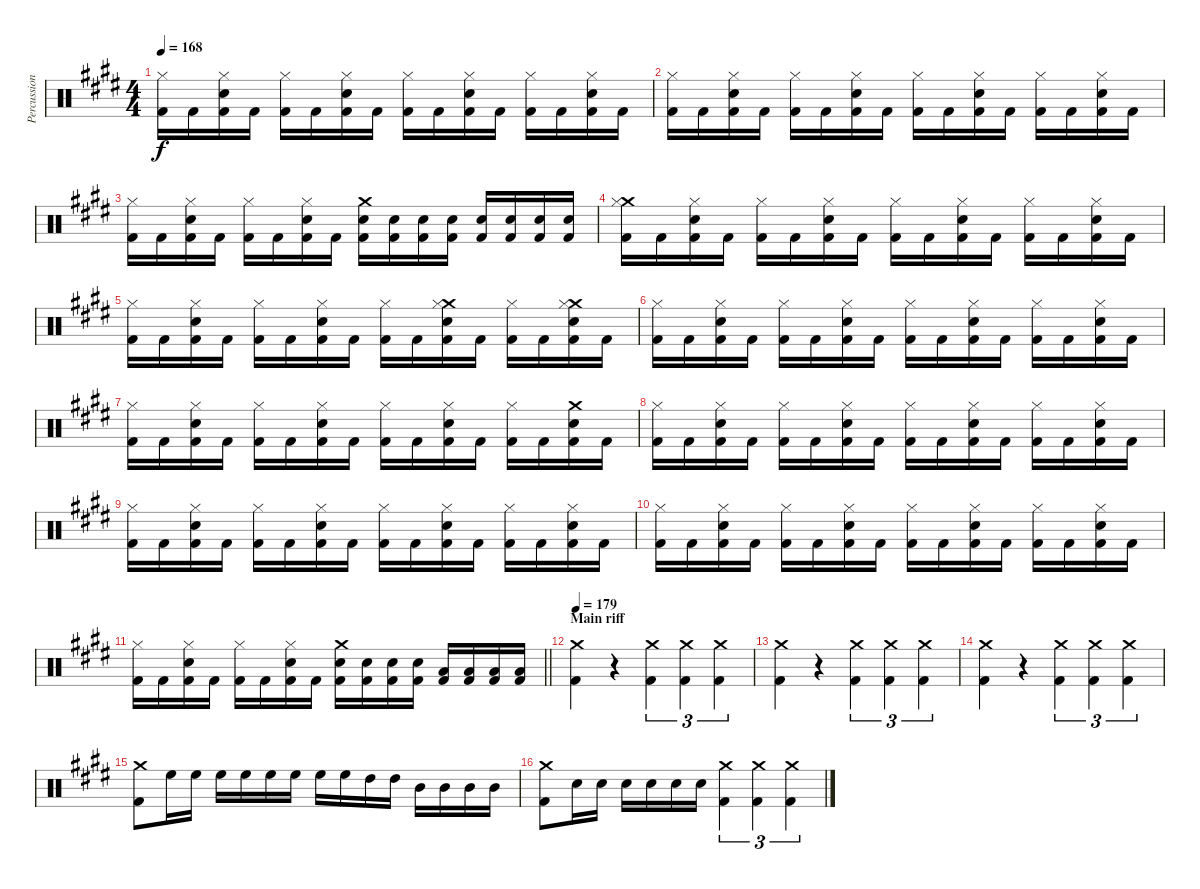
\track ("Percussion (Thomen Stauch)" "Percussion") {instrument percussion}
\staff {score}
\articulation defaults
\ts (4 4)
\tempo 168
\clef neutral
\ks c#minor
("Hi-Hat (closed)" "Kick (hit) 2").16{dy f} "Kick (hit) 2".16 ("Hi-Hat (closed)" "Snare (hit) 2" "Kick (hit) 2").16 "Kick (hit) 2".16 ("Hi-Hat (closed)" "Kick (hit) 2").16 "Kick (hit) 2".16 ("Hi-Hat (closed)" "Snare (hit) 2" "Kick (hit) 2").16 "Kick (hit) 2".16 ("Hi-Hat (closed)" "Kick (hit) 2").16 "Kick (hit) 2".16 ("Hi-Hat (closed)" "Snare (hit) 2" "Kick (hit) 2").16 "Kick (hit) 2".16 ("Hi-Hat (closed)" "Kick (hit) 2").16 "Kick (hit) 2".16 ("Hi-Hat (closed)" "Snare (hit) 2" "Kick (hit) 2").16 "Kick (hit) 2".16 |
("Hi-Hat (closed)" "Kick (hit) 2").16 "Kick (hit) 2".16 ("Hi-Hat (closed)" "Snare (hit) 2" "Kick (hit) 2").16 "Kick (hit) 2".16 ("Hi-Hat (closed)" "Kick (hit) 2").16 "Kick (hit) 2".16 ("Hi-Hat (closed)" "Snare (hit) 2" "Kick (hit) 2").16 "Kick (hit) 2".16 ("Hi-Hat (closed)" "Kick (hit) 2").16 "Kick (hit) 2".16 ("Hi-Hat (closed)" "Snare (hit) 2" "Kick (hit) 2").16 "Kick (hit) 2".16 ("Hi-Hat (closed)" "Kick (hit) 2").16 "Kick (hit) 2".16 ("Hi-Hat (closed)" "Snare (hit) 2" "Kick (hit) 2").16 "Kick (hit) 2".16 |
("Hi-Hat (closed)" "Kick (hit) 2").16 "Kick (hit) 2".16 ("Hi-Hat (closed)" "Snare (hit) 2" "Kick (hit) 2").16 "Kick (hit) 2".16 ("Hi-Hat (closed)" "Kick (hit) 2").16 "Kick (hit) 2".16 ("Hi-Hat (closed)" "Snare (hit) 2" "Kick (hit) 2").16 "Kick (hit) 2".16 ("Crash medium (hit)" "Snare (hit) 2" "Kick (hit) 2").16 ("Snare (hit) 2" "Kick (hit) 2").16 ("Snare (hit) 2" "Kick (hit) 2").16 ("Snare (hit) 2" "Kick (hit) 2").16 ("Snare (hit) 2" "Kick (hit) 2").16 ("Snare (hit) 2" "Kick (hit) 2").16 ("Snare (hit) 2" "Kick (hit) 2").16 ("Snare (hit) 2" "Kick (hit) 2").16 |
("Crash medium (hit)" "Hi-Hat (closed)" "Kick (hit) 2").16 "Kick (hit) 2".16 ("Hi-Hat (closed)" "Snare (hit) 2" "Kick (hit) 2").16 "Kick (hit) 2".16 ("Hi-Hat (closed)" "Kick (hit) 2").16 "Kick (hit) 2".16 ("Hi-Hat (closed)" "Snare (hit) 2" "Kick (hit) 2").16 "Kick (hit) 2".16 ("Hi-Hat (closed)" "Kick (hit) 2").16 "Kick (hit) 2".16 ("Hi-Hat (closed)" "Snare (hit) 2" "Kick (hit) 2").16 "Kick (hit) 2".16 ("Hi-Hat (closed)" "Kick (hit) 2").16 "Kick (hit) 2".16 ("Hi-Hat (closed)" "Snare (hit) 2" "Kick (hit) 2").16 "Kick (hit) 2".16 |
("Hi-Hat (closed)" "Kick (hit) 2").16 "Kick (hit) 2".16 ("Hi-Hat (closed)" "Snare (hit) 2" "Kick (hit) 2").16 "Kick (hit) 2".16 ("Hi-Hat (closed)" "Kick (hit) 2").16 "Kick (hit) 2".16 ("Hi-Hat (closed)" "Snare (hit) 2" "Kick (hit) 2").16 "Kick (hit) 2".16 ("Hi-Hat (closed)" "Kick (hit) 2").16 "Kick (hit) 2".16 ("Crash medium (hit)" "Hi-Hat (closed)" "Snare (hit) 2" "Kick (hit) 2").16 "Kick (hit) 2".16 ("Hi-Hat (closed)" "Kick (hit) 2").16 "Kick (hit) 2".16 ("Crash medium (hit)" "Hi-Hat (closed)" "Snare (hit) 2" "Kick (hit) 2").16 "Kick (hit) 2".16 |
("Hi-Hat (closed)" "Kick (hit) 2").16 "Kick (hit) 2".16 ("Hi-Hat (closed)" "Snare (hit) 2" "Kick (hit) 2").16 "Kick (hit) 2".16 ("Hi-Hat (closed)" "Kick (hit) 2").16 "Kick (hit) 2".16 ("Hi-Hat (closed)" "Snare (hit) 2" "Kick (hit) 2").16 "Kick (hit) 2".16 ("Hi-Hat (closed)" "Kick (hit) 2").16 "Kick (hit) 2".16 ("Hi-Hat (closed)" "Snare (hit) 2" "Kick (hit) 2").16 "Kick (hit) 2".16 ("Hi-Hat (closed)" "Kick (hit) 2").16 "Kick (hit) 2".16 ("Hi-Hat (closed)" "Snare (hit) 2" "Kick (hit) 2").16 "Kick (hit) 2".16 |
("Hi-Hat (closed)" "Kick (hit) 2").16 "Kick (hit) 2".16 ("Hi-Hat (closed)" "Snare (hit) 2" "Kick (hit) 2").16 "Kick (hit) 2".16 ("Hi-Hat (closed)" "Kick (hit) 2").16 "Kick (hit) 2".16 ("Hi-Hat (closed)" "Snare (hit) 2" "Kick (hit) 2").16 "Kick (hit) 2".16 ("Hi-Hat (closed)" "Kick (hit) 2").16 "Kick (hit) 2".16 ("Hi-Hat (closed)" "Snare (hit) 2" "Kick (hit) 2").16 "Kick (hit) 2".16 ("Hi-Hat (closed)" "Kick (hit) 2").16 "Kick (hit) 2".16 ("Crash medium (hit)" "Snare (hit) 2" "Kick (hit) 2").16 "Kick (hit) 2".16 |
("Hi-Hat (closed)" "Kick (hit) 2").16 "Kick (hit) 2".16 ("Hi-Hat (closed)" "Snare (hit) 2" "Kick (hit) 2").16 "Kick (hit) 2".16 ("Hi-Hat (closed)" "Kick (hit) 2").16 "Kick (hit) 2".16 ("Hi-Hat (closed)" "Snare (hit) 2" "Kick (hit) 2").16 "Kick (hit) 2".16 ("Hi-Hat (closed)" "Kick (hit) 2").16 "Kick (hit) 2".16 ("Hi-Hat (closed)" "Snare (hit) 2" "Kick (hit) 2").16 "Kick (hit) 2".16 ("Hi-Hat (closed)" "Kick (hit) 2").16 "Kick (hit) 2".16 ("Hi-Hat (closed)" "Snare (hit) 2" "Kick (hit) 2").16 "Kick (hit) 2".16 |
("Hi-Hat (closed)" "Kick (hit) 2").16 "Kick (hit) 2".16 ("Hi-Hat (closed)" "Snare (hit) 2" "Kick (hit) 2").16 "Kick (hit) 2".16 ("Hi-Hat (closed)" "Kick (hit) 2").16 "Kick (hit) 2".16 ("Hi-Hat (closed)" "Snare (hit) 2" "Kick (hit) 2").16 "Kick (hit) 2".16 ("Hi-Hat (closed)" "Kick (hit) 2").16 "Kick (hit) 2".16 ("Hi-Hat (closed)" "Snare (hit) 2" "Kick (hit) 2").16 "Kick (hit) 2".16 ("Hi-Hat (closed)" "Kick (hit) 2").16 "Kick (hit) 2".16 ("Hi-Hat (closed)" "Snare (hit) 2" "Kick (hit) 2").16 "Kick (hit) 2".16 |
("Hi-Hat (closed)" "Kick (hit) 2").16 "Kick (hit) 2".16 ("Hi-Hat (closed)" "Snare (hit) 2" "Kick (hit) 2").16 "Kick (hit) 2".16 ("Hi-Hat (closed)" "Kick (hit) 2").16 "Kick (hit) 2".16 ("Hi-Hat (closed)" "Snare (hit) 2" "Kick (hit) 2").16 "Kick (hit) 2".16 ("Hi-Hat (closed)" "Kick (hit) 2").16 "Kick (hit) 2".16 ("Hi-Hat (closed)" "Snare (hit) 2" "Kick (hit) 2").16 "Kick (hit) 2".16 ("Hi-Hat (closed)" "Kick (hit) 2").16 "Kick (hit) 2".16 ("Hi-Hat (closed)" "Snare (hit) 2" "Kick (hit) 2").16 "Kick (hit) 2".16 |
\barLineRight lightlight
("Hi-Hat (closed)" "Kick (hit) 2").16 "Kick (hit) 2".16 ("Hi-Hat (closed)" "Snare (hit) 2" "Kick (hit) 2").16 "Kick (hit) 2".16 ("Hi-Hat (closed)" "Kick (hit) 2").16 "Kick (hit) 2".16 ("Hi-Hat (closed)" "Snare (hit) 2" "Kick (hit) 2").16 "Kick (hit) 2".16 ("Crash medium (hit)" "Snare (hit) 2" "Kick (hit) 2").16 ("Snare (hit) 2" "Kick (hit) 2").16 ("Snare (hit) 2" "Kick (hit) 2").16 ("Snare (hit) 2" "Kick (hit) 2").16 ("Low Tom (hit)" "Kick (hit) 2").16 ("Low Tom (hit)" "Kick (hit) 2").16 ("Low Tom (hit)" "Kick (hit) 2").16 ("Low Tom (hit)" "Kick (hit) 2").16 |
\section ("" "Main riff")
\tempo 179
("Crash medium (hit)" "Kick (hit) 2").4 r.4{volume 0} ("Crash medium (hit)" "Kick (hit) 2").4{tu (3 2) volume 13} ("Crash medium (hit)" "Kick (hit) 2").4{tu (3 2)} ("Crash medium (hit)" "Kick (hit) 2").4{tu (3 2)} |
("Crash medium (hit)" "Kick (hit) 2").4 r.4{volume 0} ("Crash medium (hit)" "Kick (hit) 2").4{tu (3 2) volume 13} ("Crash medium (hit)" "Kick (hit) 2").4{tu (3 2)} ("Crash medium (hit)" "Kick (hit) 2").4{tu (3 2)} |
("Crash medium (hit)" "Kick (hit) 2").4 r.4{volume 0} ("Crash medium (hit)" "Kick (hit) 2").4{tu (3 2) volume 13} ("Crash medium (hit)" "Kick (hit) 2").4{tu (3 2)} ("Crash medium (hit)" "Kick (hit) 2").4{tu (3 2)} |
("Crash medium (hit)" "Kick (hit) 2").8 "High Floor Tom (hit)".16 "High Floor Tom (hit)".16 "High Floor Tom (hit)".16 "High Floor Tom (hit)".16 "High Floor Tom (hit)".16 "High Floor Tom (hit)".16 "High Floor Tom (hit)".16 "High Floor Tom (hit)".16 "High Tom (hit)".16 "High Tom (hit)".16 "Mid Tom (hit)".16 "Mid Tom (hit)".16 "Mid Tom (hit)".16 "Mid Tom (hit)".16 |
("Crash medium (hit)" "Kick (hit) 2").8 "Snare (hit) 2".16 "Snare (hit) 2".16 "Snare (hit) 2".16 "Snare (hit) 2".16 "Snare (hit) 2".16 "Snare (hit) 2".16 ("Crash medium (hit)" "Kick (hit) 2").4{tu (3 2)} ("Crash medium (hit)" "Kick (hit) 2").4{tu (3 2)} ("Crash medium (hit)" "Kick (hit) 2").4{tu (3 2)}
